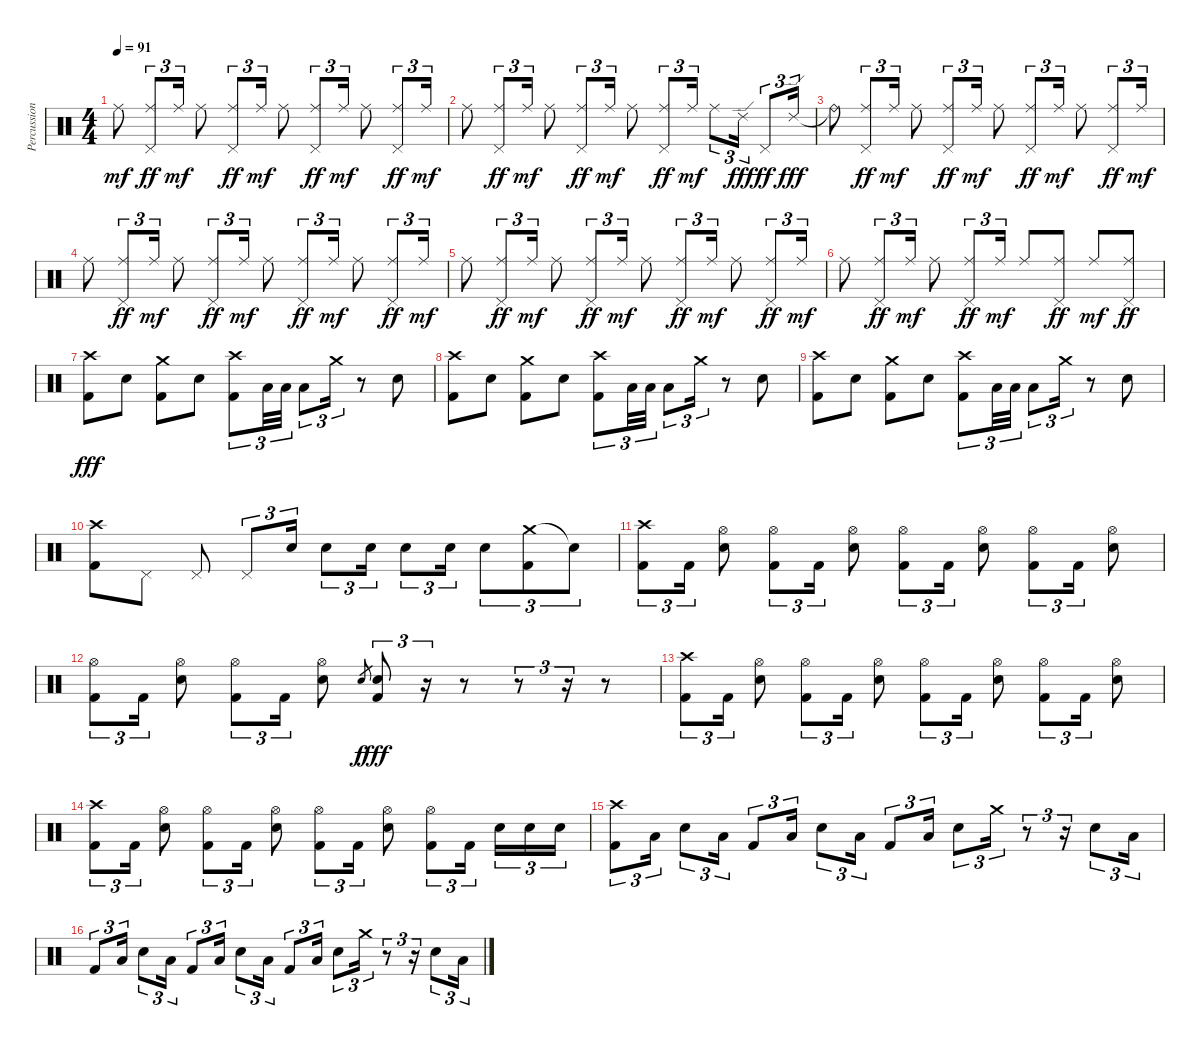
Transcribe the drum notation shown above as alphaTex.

\track ("Percussion" "Percussion") {instrument percussion}
\staff {score}
\articulation defaults
\ts (4 4)
\tempo 91
\clef neutral
\ks c "Ride (middle)".8{dy mf}
("Ride (middle)" "Pedal Hi-Hat (hit)").8{tu (3 2) dy ff} "Ride (middle)".16{tu (3 2) dy mf} "Ride (middle)".8 ("Ride (middle)" "Pedal Hi-Hat (hit)").8{tu (3 2) dy ff} "Ride (middle)".16{tu (3 2) dy mf} "Ride (middle)".8 ("Ride (middle)" "Pedal Hi-Hat (hit)").8{tu (3 2) dy ff} "Ride (middle)".16{tu (3 2) dy mf} "Ride (middle)".8 ("Ride (middle)" "Pedal Hi-Hat (hit)").8{tu (3 2) dy ff} "Ride (middle)".16{tu (3 2) dy mf} |
"Ride (middle)".8 ("Ride (middle)" "Pedal Hi-Hat (hit)").8{tu (3 2) dy ff} "Ride (middle)".16{tu (3 2) dy mf} "Ride (middle)".8 ("Ride (middle)" "Pedal Hi-Hat (hit)").8{tu (3 2) dy ff} "Ride (middle)".16{tu (3 2) dy mf} "Ride (middle)".8 ("Ride (middle)" "Pedal Hi-Hat (hit)").8{tu (3 2) dy ff} "Ride (middle)".16{tu (3 2) dy mf} "Ride (middle)".8{tu (3 2)} "Ride (edge) 2".16{tu (3 2) dy fff} "Pedal Hi-Hat (hit)".8{tu (3 2) dy ff} "Ride (edge) 2".16{tu (3 2) dy fff} |
"Ride (bell)"{t}.8 ("Ride (middle)" "Pedal Hi-Hat (hit)").8{tu (3 2) dy ff} "Ride (middle)".16{tu (3 2) dy mf} "Ride (middle)".8 ("Ride (middle)" "Pedal Hi-Hat (hit)").8{tu (3 2) dy ff} "Ride (middle)".16{tu (3 2) dy mf} "Ride (middle)".8 ("Ride (middle)" "Pedal Hi-Hat (hit)").8{tu (3 2) dy ff} "Ride (middle)".16{tu (3 2) dy mf} "Ride (middle)".8 ("Ride (middle)" "Pedal Hi-Hat (hit)").8{tu (3 2) dy ff} "Ride (middle)".16{tu (3 2) dy mf} |
"Ride (middle)".8 ("Ride (middle)" "Pedal Hi-Hat (hit)").8{tu (3 2) dy ff} "Ride (middle)".16{tu (3 2) dy mf} "Ride (middle)".8 ("Ride (middle)" "Pedal Hi-Hat (hit)").8{tu (3 2) dy ff} "Ride (middle)".16{tu (3 2) dy mf} "Ride (middle)".8 ("Ride (middle)" "Pedal Hi-Hat (hit)").8{tu (3 2) dy ff} "Ride (middle)".16{tu (3 2) dy mf} "Ride (middle)".8 ("Ride (middle)" "Pedal Hi-Hat (hit)").8{tu (3 2) dy ff} "Ride (middle)".16{tu (3 2) dy mf} |
"Ride (middle)".8 ("Ride (middle)" "Pedal Hi-Hat (hit)").8{tu (3 2) dy ff} "Ride (middle)".16{tu (3 2) dy mf} "Ride (middle)".8 ("Ride (middle)" "Pedal Hi-Hat (hit)").8{tu (3 2) dy ff} "Ride (middle)".16{tu (3 2) dy mf} "Ride (middle)".8 ("Ride (middle)" "Pedal Hi-Hat (hit)").8{tu (3 2) dy ff} "Ride (middle)".16{tu (3 2) dy mf} "Ride (middle)".8 ("Ride (middle)" "Pedal Hi-Hat (hit)").8{tu (3 2) dy ff} "Ride (middle)".16{tu (3 2) dy mf} |
"Ride (middle)".8 ("Ride (middle)" "Pedal Hi-Hat (hit)").8{tu (3 2) dy ff} "Ride (middle)".16{tu (3 2) dy mf} "Ride (middle)".8 ("Ride (middle)" "Pedal Hi-Hat (hit)").8{tu (3 2) dy ff} "Ride (middle)".16{tu (3 2) dy mf} "Ride (middle)".8 ("Ride (middle)" "Pedal Hi-Hat (hit)").8{dy ff} "Ride (middle)".8{dy mf} ("Ride (middle)" "Pedal Hi-Hat (hit)").8{dy ff} |
("Crash high (hit)" "Kick (hit) 2").8{dy fff} "Electric Snare (hit)".8 ("Crash medium (hit)" "Kick (hit) 2").8 "Electric Snare (hit)".8 ("Crash high (hit)" "Kick (hit) 2").8{tu (3 2)} "Low Tom (hit)".32{tu (3 2)} "Low Tom (hit)".32{tu (3 2)} "Low Tom (hit)".8{tu (3 2)} "Crash medium (hit)".16{tu (3 2)} r.8 "Electric Snare (hit)".8 |
("Crash high (hit)" "Kick (hit) 2").8 "Electric Snare (hit)".8 ("Crash medium (hit)" "Kick (hit) 2").8 "Electric Snare (hit)".8 ("Crash high (hit)" "Kick (hit) 2").8{tu (3 2)} "Low Tom (hit)".32{tu (3 2)} "Low Tom (hit)".32{tu (3 2)} "Low Tom (hit)".8{tu (3 2)} "Crash medium (hit)".16{tu (3 2)} r.8 "Electric Snare (hit)".8 |
("Crash high (hit)" "Kick (hit) 2").8 "Electric Snare (hit)".8 ("Crash medium (hit)" "Kick (hit) 2").8 "Electric Snare (hit)".8 ("Crash high (hit)" "Kick (hit) 2").8{tu (3 2)} "Low Tom (hit)".32{tu (3 2)} "Low Tom (hit)".32{tu (3 2)} "Low Tom (hit)".8{tu (3 2)} "Crash medium (hit)".16{tu (3 2)} r.8 "Electric Snare (hit)".8 |
("Crash high (hit)" "Kick (hit) 2").8 "Pedal Hi-Hat (hit)".8 "Pedal Hi-Hat (hit)".8 "Pedal Hi-Hat (hit)".8{tu (3 2)} "Electric Snare (hit)".16{tu (3 2)} "Electric Snare (hit)".8{tu (3 2)} "Electric Snare (hit)".16{tu (3 2)} "Electric Snare (hit)".8{tu (3 2)} "Electric Snare (hit)".16{tu (3 2)} "Electric Snare (hit)".8{tu (3 2)} ("Crash medium (hit)" "Kick (hit) 2").8{tu (3 2)} "Snare (hit)"{t}.8{tu (3 2)} |
("Crash high (hit)" "Kick (hit) 2").8{tu (3 2)} "Kick (hit) 2".16{tu (3 2)} ("Hi-Hat (open)" "Electric Snare (hit)").8 ("Hi-Hat (open)" "Kick (hit) 2").8{tu (3 2)} "Kick (hit) 2".16{tu (3 2)} ("Hi-Hat (open)" "Electric Snare (hit)").8 ("Hi-Hat (open)" "Kick (hit) 2").8{tu (3 2)} "Kick (hit) 2".16{tu (3 2)} ("Hi-Hat (open)" "Electric Snare (hit)").8 ("Hi-Hat (open)" "Kick (hit) 2").8{tu (3 2)} "Kick (hit) 2".16{tu (3 2)} ("Hi-Hat (open)" "Electric Snare (hit)").8 |
("Hi-Hat (open)" "Kick (hit) 2").8{tu (3 2)} "Kick (hit) 2".16{tu (3 2)} ("Hi-Hat (open)" "Electric Snare (hit)").8 ("Hi-Hat (open)" "Kick (hit) 2").8{tu (3 2)} "Kick (hit) 2".16{tu (3 2)} ("Hi-Hat (open)" "Electric Snare (hit)").8 "Electric Snare (hit)".8{gr dy f} ("Electric Snare (hit)" "Kick (hit) 2").8{tu (3 2) dy fff} r.16{tu (3 2)} r.8 r.8{tu (3 2)} r.16{tu (3 2)} r.8 |
("Crash high (hit)" "Kick (hit) 2").8{tu (3 2)} "Kick (hit) 2".16{tu (3 2)} ("Hi-Hat (open)" "Electric Snare (hit)").8 ("Hi-Hat (open)" "Kick (hit) 2").8{tu (3 2)} "Kick (hit) 2".16{tu (3 2)} ("Hi-Hat (open)" "Electric Snare (hit)").8 ("Hi-Hat (open)" "Kick (hit) 2").8{tu (3 2)} "Kick (hit) 2".16{tu (3 2)} ("Hi-Hat (open)" "Electric Snare (hit)").8 ("Hi-Hat (open)" "Kick (hit) 2").8{tu (3 2)} "Kick (hit) 2".16{tu (3 2)} ("Hi-Hat (open)" "Electric Snare (hit)").8 |
("Crash high (hit)" "Kick (hit) 2").8{tu (3 2)} "Kick (hit) 2".16{tu (3 2)} ("Hi-Hat (open)" "Electric Snare (hit)").8 ("Hi-Hat (open)" "Kick (hit) 2").8{tu (3 2)} "Kick (hit) 2".16{tu (3 2)} ("Hi-Hat (open)" "Electric Snare (hit)").8 ("Hi-Hat (open)" "Kick (hit) 2").8{tu (3 2)} "Kick (hit) 2".16{tu (3 2)} ("Hi-Hat (open)" "Electric Snare (hit)").8 ("Hi-Hat (open)" "Kick (hit) 2").8{tu (3 2)} "Kick (hit) 2".16{tu (3 2) beam splitsecondary} "Electric Snare (hit)".16{tu (3 2)} "Electric Snare (hit)".16{tu (3 2)} "Electric Snare (hit)".16{tu (3 2)} |
("Crash high (hit)" "Kick (hit) 2").8{tu (3 2)} "Low Floor Tom (hit)".16{tu (3 2)} "Electric Snare (hit)".8{tu (3 2)} "Low Floor Tom (hit)".16{tu (3 2)} "Kick (hit) 2".8{tu (3 2)} "Low Floor Tom (hit)".16{tu (3 2)} "Electric Snare (hit)".8{tu (3 2)} "Low Floor Tom (hit)".16{tu (3 2)} "Kick (hit) 2".8{tu (3 2)} "Low Floor Tom (hit)".16{tu (3 2)} "Electric Snare (hit)".8{tu (3 2)} "Crash medium (hit)".16{tu (3 2)} r.8{tu (3 2)} r.16{tu (3 2)} "Electric Snare (hit)".8{tu (3 2)} "Low Floor Tom (hit)".16{tu (3 2)} |
"Kick (hit) 2".8{tu (3 2)} "Low Floor Tom (hit)".16{tu (3 2)} "Electric Snare (hit)".8{tu (3 2)} "Low Floor Tom (hit)".16{tu (3 2)} "Kick (hit) 2".8{tu (3 2)} "Low Floor Tom (hit)".16{tu (3 2)} "Electric Snare (hit)".8{tu (3 2)} "Low Floor Tom (hit)".16{tu (3 2)} "Kick (hit) 2".8{tu (3 2)} "Low Floor Tom (hit)".16{tu (3 2)} "Electric Snare (hit)".8{tu (3 2)} "Crash medium (hit)".16{tu (3 2)} r.8{tu (3 2)} r.16{tu (3 2)} "Electric Snare (hit)".8{tu (3 2)} "Low Floor Tom (hit)".16{tu (3 2)}
